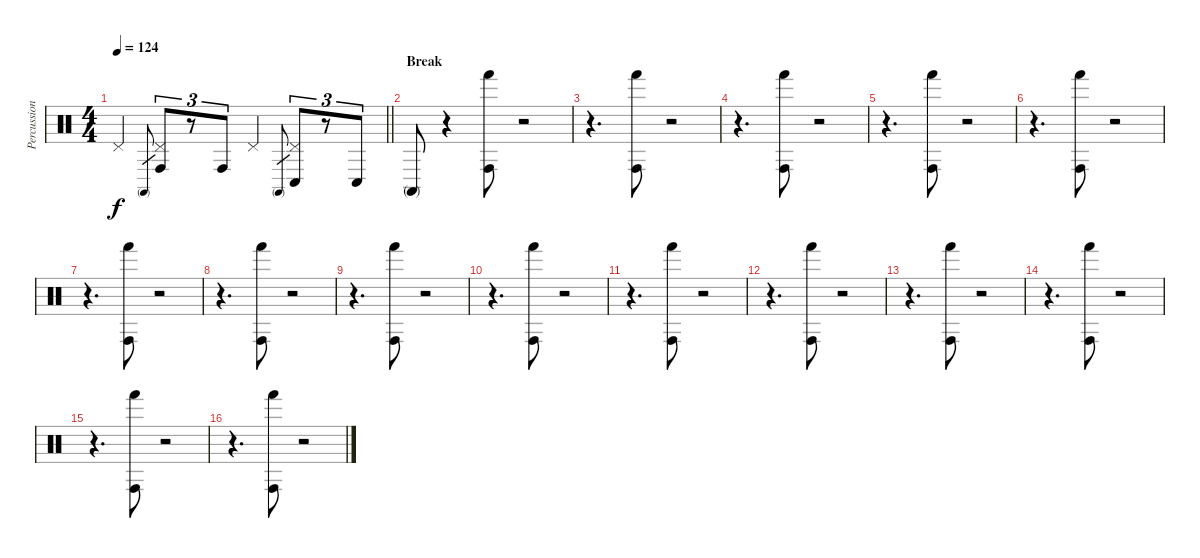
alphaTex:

\track ("Percussions" "Percussion") {instrument percussion}
\staff {score}
\articulation defaults
\ts (4 4)
\tempo 124
\clef neutral
\barLineRight lightlight
\ks c "Pedal Hi-Hat (hit)".4{dy f} "Conga high (mute)".8{gr}
("Pedal Hi-Hat (hit)" "Conga high (hit)").8{tu (3 2)} r.8{tu (3 2)} "Conga high (hit)".8{tu (3 2)} "Pedal Hi-Hat (hit)".4 "Conga high (mute)".8{gr} ("Pedal Hi-Hat (hit)" "Conga low (hit)").8{tu (3 2)} r.8{tu (3 2)} "Conga low (hit)".8{tu (3 2)} |
\section ("" "Break")
"Conga high (mute)".8 r.4 ("Hand (hit)" "Conga high (hit)").8{bd 120} r.2 |
r.4{d} ("Hand (hit)" "Conga high (hit)").8{bd 120} r.2 |
r.4{d} ("Hand (hit)" "Conga high (hit)").8{bd 120} r.2 |
r.4{d} ("Hand (hit)" "Conga high (hit)").8{bd 120} r.2 |
r.4{d} ("Hand (hit)" "Conga high (hit)").8{bd 120} r.2 |
r.4{d} ("Hand (hit)" "Conga high (hit)").8{bd 120} r.2 |
r.4{d} ("Hand (hit)" "Conga high (hit)").8{bd 120} r.2 |
r.4{d} ("Hand (hit)" "Conga high (hit)").8{bd 120} r.2 |
r.4{d} ("Hand (hit)" "Conga high (hit)").8{bd 120} r.2 |
r.4{d} ("Hand (hit)" "Conga high (hit)").8{bd 120} r.2 |
r.4{d} ("Hand (hit)" "Conga high (hit)").8{bd 120} r.2 |
r.4{d} ("Hand (hit)" "Conga high (hit)").8{bd 120} r.2 |
r.4{d} ("Hand (hit)" "Conga high (hit)").8{bd 120} r.2 |
r.4{d} ("Hand (hit)" "Conga high (hit)").8{bd 120} r.2 |
r.4{d} ("Hand (hit)" "Conga high (hit)").8{bd 120} r.2
